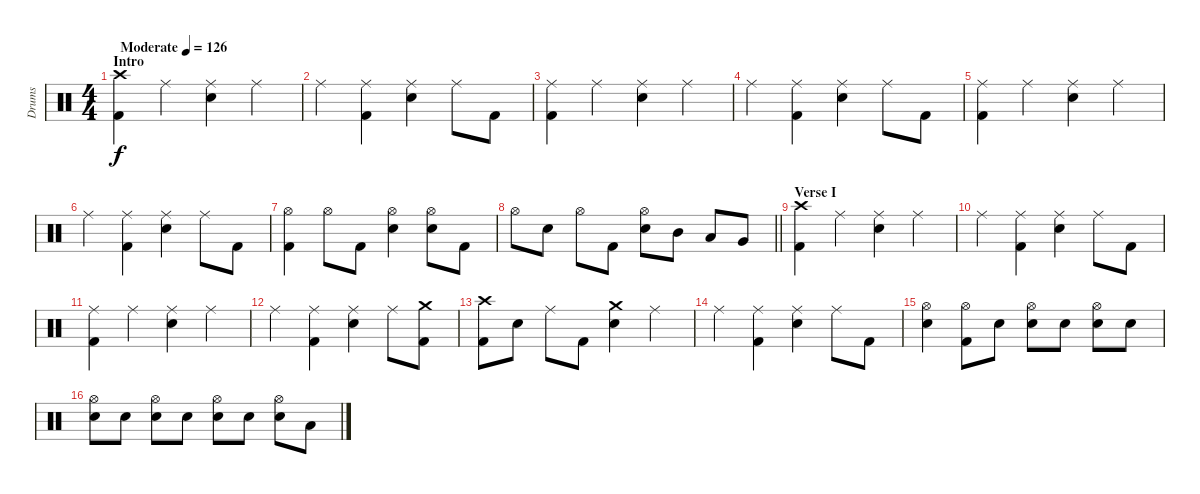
\track ("Drums" "Drums") {instrument percussion}
\staff {score}
\articulation defaults
\ts (4 4)
\section ("" "Intro")
\tempo (126 "Moderate")
\clef neutral
\ks c
("Crash high (hit)" "Kick (hit) 2").4{dy f} "Ride (middle)".4 ("Ride (middle)" "Snare (hit) 2").4 "Ride (middle)".4 |
"Ride (middle)".4 ("Ride (middle)" "Kick (hit) 2").4 ("Ride (middle)" "Snare (hit) 2").4 "Ride (middle)".8 "Kick (hit) 2".8 |
("Ride (middle)" "Kick (hit) 2").4 "Ride (middle)".4 ("Ride (middle)" "Snare (hit) 2").4 "Ride (middle)".4 |
"Ride (middle)".4 ("Ride (middle)" "Kick (hit) 2").4 ("Ride (middle)" "Snare (hit) 2").4 "Ride (middle)".8 "Kick (hit) 2".8 |
("Ride (middle)" "Kick (hit) 2").4 "Ride (middle)".4 ("Ride (middle)" "Snare (hit) 2").4 "Ride (middle)".4 |
"Ride (middle)".4 ("Ride (middle)" "Kick (hit) 2").4 ("Ride (middle)" "Snare (hit) 2").4 "Ride (middle)".8 "Kick (hit) 2".8 |
("Hi-Hat (open)" "Kick (hit) 2").4 "Hi-Hat (open)".8 "Kick (hit) 2".8 ("Hi-Hat (open)" "Snare (hit) 2").4 ("Hi-Hat (open)" "Snare (hit) 2").8 "Kick (hit) 2".8 |
\barLineRight lightlight "Hi-Hat (open)".8 "Snare (hit) 2".8 "Hi-Hat (open)".8 "Kick (hit) 2".8
("Hi-Hat (open)" "Snare (hit) 2").8 "Mid Tom (hit)".8 "Low Tom (hit)".8 "Very Low Tom (hit)".8 |
\section ("" "Verse I")
("Crash high (hit)" "Kick (hit) 2").4 "Ride (middle)".4 ("Ride (middle)" "Snare (hit) 2").4 "Ride (middle)".4 |
"Ride (middle)".4 ("Ride (middle)" "Kick (hit) 2").4 ("Ride (middle)" "Snare (hit) 2").4 "Ride (middle)".8 "Kick (hit) 2".8 |
("Ride (middle)" "Kick (hit) 2").4 "Ride (middle)".4 ("Ride (middle)" "Snare (hit) 2").4 "Ride (middle)".4 |
"Ride (middle)".4 ("Ride (middle)" "Kick (hit) 2").4 ("Ride (middle)" "Snare (hit) 2").4 "Ride (middle)".8 ("Crash medium (hit)" "Kick (hit) 2").8 |
("Crash high (hit)" "Kick (hit) 2").8 "Snare (hit) 2".8 "Ride (middle)".8 "Kick (hit) 2".8 ("Crash medium (hit)" "Snare (hit) 2").4 "Ride (middle)".4 |
"Ride (middle)".4 ("Ride (middle)" "Kick (hit) 2").4 ("Ride (middle)" "Snare (hit) 2").4 "Ride (middle)".8 "Kick (hit) 2".8 |
("Hi-Hat (open)" "Snare (hit) 2").4 ("Hi-Hat (open)" "Kick (hit) 2").8 "Snare (hit) 2".8 ("Hi-Hat (open)" "Snare (hit) 2").8 "Snare (hit) 2".8 ("Hi-Hat (open)" "Snare (hit) 2").8 "Snare (hit) 2".8 |
("Hi-Hat (open)" "Snare (hit) 2").8 "Snare (hit) 2".8 ("Hi-Hat (open)" "Snare (hit) 2").8 "Snare (hit) 2".8 ("Hi-Hat (open)" "Snare (hit) 2").8 "Snare (hit) 2".8 ("Hi-Hat (open)" "Snare (hit) 2").8 "Low Tom (hit)".8
